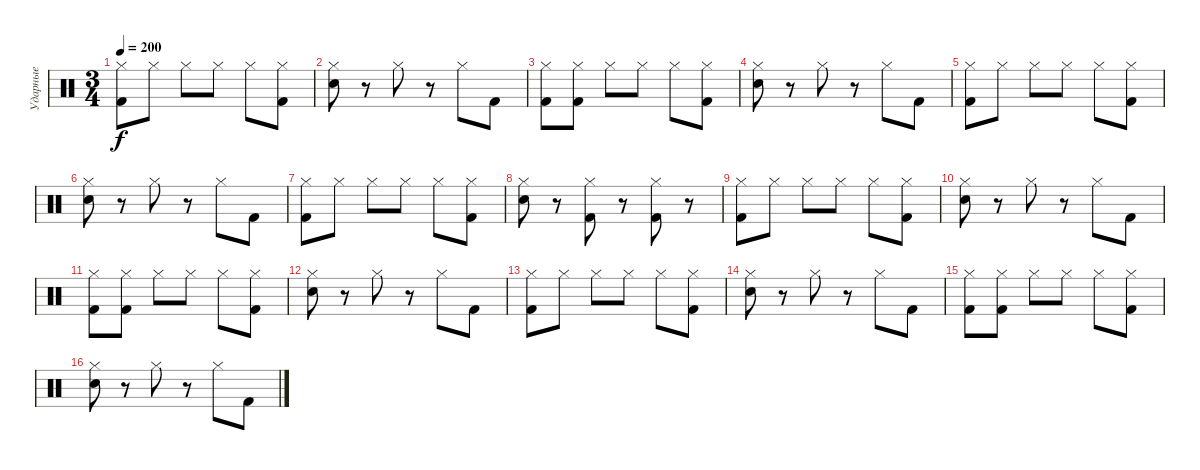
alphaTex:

\track ("Ударные" "Ударные") {instrument percussion}
\staff {score}
\articulation defaults
\ts (3 4)
\tempo 200
\clef neutral
\ks c
("Hi-Hat (closed)" "Kick (hit) 2").8{dy f} "Hi-Hat (closed)".8 "Hi-Hat (closed)".8 "Hi-Hat (closed)".8 "Hi-Hat (closed)".8 ("Hi-Hat (closed)" "Kick (hit) 2").8 |
("Hi-Hat (closed)" "Electric Snare (hit)").8 r.8 "Hi-Hat (closed)".8 r.8 "Hi-Hat (closed)".8 "Kick (hit) 2".8 |
("Hi-Hat (closed)" "Kick (hit) 2").8 ("Hi-Hat (closed)" "Kick (hit) 2").8 "Hi-Hat (closed)".8 "Hi-Hat (closed)".8 "Hi-Hat (closed)".8 ("Hi-Hat (closed)" "Kick (hit) 2").8 |
("Hi-Hat (closed)" "Electric Snare (hit)").8 r.8 "Hi-Hat (closed)".8 r.8 "Hi-Hat (closed)".8 "Kick (hit) 2".8 |
("Hi-Hat (closed)" "Kick (hit) 2").8 "Hi-Hat (closed)".8 "Hi-Hat (closed)".8 "Hi-Hat (closed)".8 "Hi-Hat (closed)".8 ("Hi-Hat (closed)" "Kick (hit) 2").8 |
("Hi-Hat (closed)" "Electric Snare (hit)").8 r.8 "Hi-Hat (closed)".8 r.8 "Hi-Hat (closed)".8 "Kick (hit) 2".8 |
("Hi-Hat (closed)" "Kick (hit) 2").8 "Hi-Hat (closed)".8 "Hi-Hat (closed)".8 "Hi-Hat (closed)".8 "Hi-Hat (closed)".8 ("Hi-Hat (closed)" "Kick (hit) 2").8 |
("Hi-Hat (closed)" "Electric Snare (hit)").8 r.8 ("Hi-Hat (closed)" "Kick (hit) 2").8 r.8 ("Hi-Hat (closed)" "Kick (hit) 2").8 r.8 |
("Hi-Hat (closed)" "Kick (hit) 2").8 "Hi-Hat (closed)".8 "Hi-Hat (closed)".8 "Hi-Hat (closed)".8 "Hi-Hat (closed)".8 ("Hi-Hat (closed)" "Kick (hit) 2").8 |
("Hi-Hat (closed)" "Electric Snare (hit)").8 r.8 "Hi-Hat (closed)".8 r.8 "Hi-Hat (closed)".8 "Kick (hit) 2".8 |
("Hi-Hat (closed)" "Kick (hit) 2").8 ("Hi-Hat (closed)" "Kick (hit) 2").8 "Hi-Hat (closed)".8 "Hi-Hat (closed)".8 "Hi-Hat (closed)".8 ("Hi-Hat (closed)" "Kick (hit) 2").8 |
("Hi-Hat (closed)" "Electric Snare (hit)").8 r.8 "Hi-Hat (closed)".8 r.8 "Hi-Hat (closed)".8 "Kick (hit) 2".8 |
("Hi-Hat (closed)" "Kick (hit) 2").8 "Hi-Hat (closed)".8 "Hi-Hat (closed)".8 "Hi-Hat (closed)".8 "Hi-Hat (closed)".8 ("Hi-Hat (closed)" "Kick (hit) 2").8 |
("Hi-Hat (closed)" "Electric Snare (hit)").8 r.8 "Hi-Hat (closed)".8 r.8 "Hi-Hat (closed)".8 "Kick (hit) 2".8 |
("Hi-Hat (closed)" "Kick (hit) 2").8 ("Hi-Hat (closed)" "Kick (hit) 2").8 "Hi-Hat (closed)".8 "Hi-Hat (closed)".8 "Hi-Hat (closed)".8 ("Hi-Hat (closed)" "Kick (hit) 2").8 |
("Hi-Hat (closed)" "Electric Snare (hit)").8 r.8 "Hi-Hat (closed)".8 r.8 "Hi-Hat (closed)".8 "Kick (hit) 2".8
